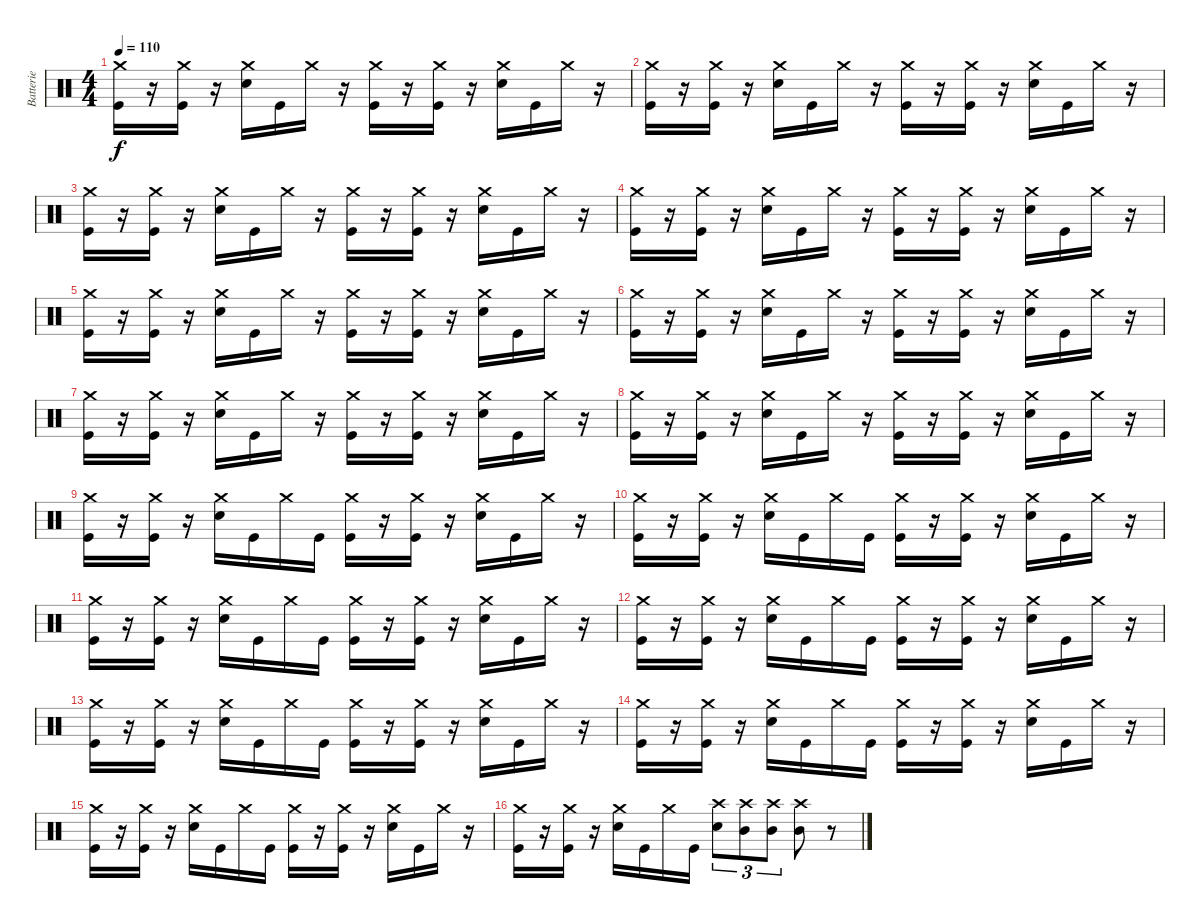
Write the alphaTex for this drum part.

\track ("Batterie" "Batterie") {instrument percussion}
\staff {score}
\articulation defaults
\ts (4 4)
\tempo 110
\clef neutral
\ks c
("Crash medium (hit)" "Kick (hit)").16{dy f} r.16 ("Crash medium (hit)" "Kick (hit)").16 r.16 ("Crash medium (hit)" "Electric Snare (hit)").16 "Kick (hit)".16 "Crash medium (hit)".16 r.16 ("Crash medium (hit)" "Kick (hit)").16 r.16 ("Crash medium (hit)" "Kick (hit)").16 r.16 ("Crash medium (hit)" "Electric Snare (hit)").16 "Kick (hit)".16 "Crash medium (hit)".16 r.16 |
("Crash medium (hit)" "Kick (hit)").16 r.16 ("Crash medium (hit)" "Kick (hit)").16 r.16 ("Crash medium (hit)" "Electric Snare (hit)").16 "Kick (hit)".16 "Crash medium (hit)".16 r.16 ("Crash medium (hit)" "Kick (hit)").16 r.16 ("Crash medium (hit)" "Kick (hit)").16 r.16 ("Crash medium (hit)" "Electric Snare (hit)").16 "Kick (hit)".16 "Crash medium (hit)".16 r.16 |
("Crash medium (hit)" "Kick (hit)").16 r.16 ("Crash medium (hit)" "Kick (hit)").16 r.16 ("Crash medium (hit)" "Electric Snare (hit)").16 "Kick (hit)".16 "Crash medium (hit)".16 r.16 ("Crash medium (hit)" "Kick (hit)").16 r.16 ("Crash medium (hit)" "Kick (hit)").16 r.16 ("Crash medium (hit)" "Electric Snare (hit)").16 "Kick (hit)".16 "Crash medium (hit)".16 r.16 |
("Crash medium (hit)" "Kick (hit)").16 r.16 ("Crash medium (hit)" "Kick (hit)").16 r.16 ("Crash medium (hit)" "Electric Snare (hit)").16 "Kick (hit)".16 "Crash medium (hit)".16 r.16 ("Crash medium (hit)" "Kick (hit)").16 r.16 ("Crash medium (hit)" "Kick (hit)").16 r.16 ("Crash medium (hit)" "Electric Snare (hit)").16 "Kick (hit)".16 "Crash medium (hit)".16 r.16 |
("Crash medium (hit)" "Kick (hit)").16 r.16 ("Crash medium (hit)" "Kick (hit)").16 r.16 ("Crash medium (hit)" "Electric Snare (hit)").16 "Kick (hit)".16 "Crash medium (hit)".16 r.16 ("Crash medium (hit)" "Kick (hit)").16 r.16 ("Crash medium (hit)" "Kick (hit)").16 r.16 ("Crash medium (hit)" "Electric Snare (hit)").16 "Kick (hit)".16 "Crash medium (hit)".16 r.16 |
("Crash medium (hit)" "Kick (hit)").16 r.16 ("Crash medium (hit)" "Kick (hit)").16 r.16 ("Crash medium (hit)" "Electric Snare (hit)").16 "Kick (hit)".16 "Crash medium (hit)".16 r.16 ("Crash medium (hit)" "Kick (hit)").16 r.16 ("Crash medium (hit)" "Kick (hit)").16 r.16 ("Crash medium (hit)" "Electric Snare (hit)").16 "Kick (hit)".16 "Crash medium (hit)".16 r.16 |
("Crash medium (hit)" "Kick (hit)").16 r.16 ("Crash medium (hit)" "Kick (hit)").16 r.16 ("Crash medium (hit)" "Electric Snare (hit)").16 "Kick (hit)".16 "Crash medium (hit)".16 r.16 ("Crash medium (hit)" "Kick (hit)").16 r.16 ("Crash medium (hit)" "Kick (hit)").16 r.16 ("Crash medium (hit)" "Electric Snare (hit)").16 "Kick (hit)".16 "Crash medium (hit)".16 r.16 |
("Crash medium (hit)" "Kick (hit)").16 r.16 ("Crash medium (hit)" "Kick (hit)").16 r.16 ("Crash medium (hit)" "Electric Snare (hit)").16 "Kick (hit)".16 "Crash medium (hit)".16 r.16 ("Crash medium (hit)" "Kick (hit)").16 r.16 ("Crash medium (hit)" "Kick (hit)").16 r.16 ("Crash medium (hit)" "Electric Snare (hit)").16 "Kick (hit)".16 "Crash medium (hit)".16 r.16 |
("Crash medium (hit)" "Kick (hit)").16 r.16 ("Crash medium (hit)" "Kick (hit)").16 r.16 ("Crash medium (hit)" "Electric Snare (hit)").16 "Kick (hit)".16 "Crash medium (hit)".16 "Kick (hit)".16 ("Crash medium (hit)" "Kick (hit)").16 r.16 ("Crash medium (hit)" "Kick (hit)").16 r.16 ("Crash medium (hit)" "Electric Snare (hit)").16 "Kick (hit)".16 "Crash medium (hit)".16 r.16 |
("Crash medium (hit)" "Kick (hit)").16 r.16 ("Crash medium (hit)" "Kick (hit)").16 r.16 ("Crash medium (hit)" "Electric Snare (hit)").16 "Kick (hit)".16 "Crash medium (hit)".16 "Kick (hit)".16 ("Crash medium (hit)" "Kick (hit)").16 r.16 ("Crash medium (hit)" "Kick (hit)").16 r.16 ("Crash medium (hit)" "Electric Snare (hit)").16 "Kick (hit)".16 "Crash medium (hit)".16 r.16 |
("Crash medium (hit)" "Kick (hit)").16 r.16 ("Crash medium (hit)" "Kick (hit)").16 r.16 ("Crash medium (hit)" "Electric Snare (hit)").16 "Kick (hit)".16 "Crash medium (hit)".16 "Kick (hit)".16 ("Crash medium (hit)" "Kick (hit)").16 r.16 ("Crash medium (hit)" "Kick (hit)").16 r.16 ("Crash medium (hit)" "Electric Snare (hit)").16 "Kick (hit)".16 "Crash medium (hit)".16 r.16 |
("Crash medium (hit)" "Kick (hit)").16 r.16 ("Crash medium (hit)" "Kick (hit)").16 r.16 ("Crash medium (hit)" "Electric Snare (hit)").16 "Kick (hit)".16 "Crash medium (hit)".16 "Kick (hit)".16 ("Crash medium (hit)" "Kick (hit)").16 r.16 ("Crash medium (hit)" "Kick (hit)").16 r.16 ("Crash medium (hit)" "Electric Snare (hit)").16 "Kick (hit)".16 "Crash medium (hit)".16 r.16 |
("Crash medium (hit)" "Kick (hit)").16 r.16 ("Crash medium (hit)" "Kick (hit)").16 r.16 ("Crash medium (hit)" "Electric Snare (hit)").16 "Kick (hit)".16 "Crash medium (hit)".16 "Kick (hit)".16 ("Crash medium (hit)" "Kick (hit)").16 r.16 ("Crash medium (hit)" "Kick (hit)").16 r.16 ("Crash medium (hit)" "Electric Snare (hit)").16 "Kick (hit)".16 "Crash medium (hit)".16 r.16 |
("Crash medium (hit)" "Kick (hit)").16 r.16 ("Crash medium (hit)" "Kick (hit)").16 r.16 ("Crash medium (hit)" "Electric Snare (hit)").16 "Kick (hit)".16 "Crash medium (hit)".16 "Kick (hit)".16 ("Crash medium (hit)" "Kick (hit)").16 r.16 ("Crash medium (hit)" "Kick (hit)").16 r.16 ("Crash medium (hit)" "Electric Snare (hit)").16 "Kick (hit)".16 "Crash medium (hit)".16 r.16 |
("Crash medium (hit)" "Kick (hit)").16 r.16 ("Crash medium (hit)" "Kick (hit)").16 r.16 ("Crash medium (hit)" "Electric Snare (hit)").16 "Kick (hit)".16 "Crash medium (hit)".16 "Kick (hit)".16 ("Crash medium (hit)" "Kick (hit)").16 r.16 ("Crash medium (hit)" "Kick (hit)").16 r.16 ("Crash medium (hit)" "Electric Snare (hit)").16 "Kick (hit)".16 "Crash medium (hit)".16 r.16 |
("Crash medium (hit)" "Kick (hit)").16 r.16 ("Crash medium (hit)" "Kick (hit)").16 r.16 ("Crash medium (hit)" "Electric Snare (hit)").16 "Kick (hit)".16 "Crash medium (hit)".16 "Kick (hit)".16 ("Crash high (hit)" "Electric Snare (hit)").8{tu (3 2)} ("Crash high (hit)" "Mid Tom (hit)").8{tu (3 2)} ("Crash high (hit)" "Mid Tom (hit)").8{tu (3 2)} ("Crash high (hit)" "Mid Tom (hit)").8 r.8
